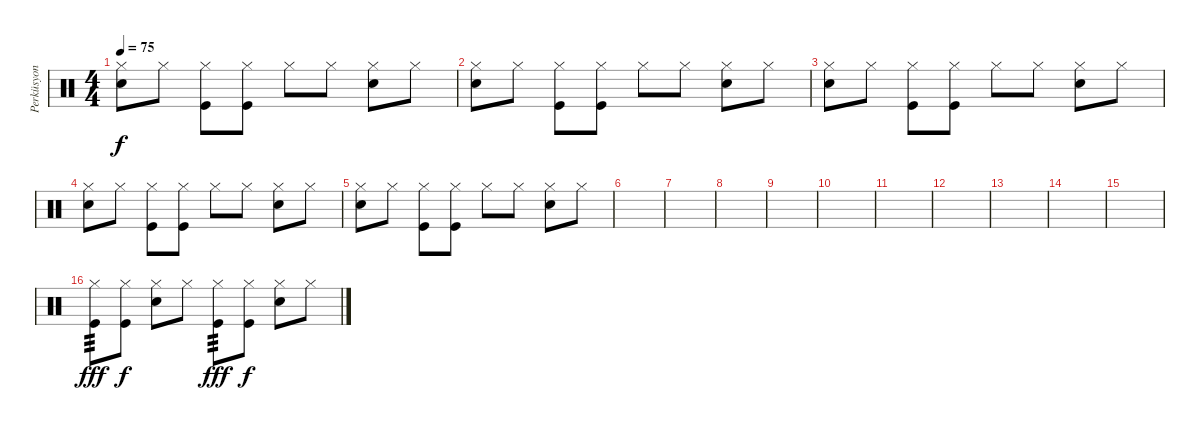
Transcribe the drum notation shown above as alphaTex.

\track ("Perküsyon" "Perküsyon") {instrument percussion}
\staff {score}
\articulation defaults
\ts (4 4)
\tempo 75
\clef neutral
\ks c
("Snare (hit) 2" "Hi-Hat (closed)").8{dy f} "Hi-Hat (closed)".8 ("Kick (hit)" "Hi-Hat (closed)").8 ("Kick (hit)" "Hi-Hat (closed)").8 "Hi-Hat (closed)".8 "Hi-Hat (closed)".8 ("Snare (hit) 2" "Hi-Hat (closed)").8 "Hi-Hat (closed)".8 |
("Snare (hit) 2" "Hi-Hat (closed)").8 "Hi-Hat (closed)".8 ("Kick (hit)" "Hi-Hat (closed)").8 ("Kick (hit)" "Hi-Hat (closed)").8 "Hi-Hat (closed)".8 "Hi-Hat (closed)".8 ("Snare (hit) 2" "Hi-Hat (closed)").8 "Hi-Hat (closed)".8 |
("Snare (hit) 2" "Hi-Hat (closed)").8 "Hi-Hat (closed)".8 ("Kick (hit)" "Hi-Hat (closed)").8 ("Kick (hit)" "Hi-Hat (closed)").8 "Hi-Hat (closed)".8 "Hi-Hat (closed)".8 ("Snare (hit) 2" "Hi-Hat (closed)").8 "Hi-Hat (closed)".8 |
("Snare (hit) 2" "Hi-Hat (closed)").8 "Hi-Hat (closed)".8 ("Kick (hit)" "Hi-Hat (closed)").8 ("Kick (hit)" "Hi-Hat (closed)").8 "Hi-Hat (closed)".8 "Hi-Hat (closed)".8 ("Snare (hit) 2" "Hi-Hat (closed)").8 "Hi-Hat (closed)".8 |
("Snare (hit) 2" "Hi-Hat (closed)").8 "Hi-Hat (closed)".8 ("Kick (hit)" "Hi-Hat (closed)").8 ("Kick (hit)" "Hi-Hat (closed)").8 "Hi-Hat (closed)".8 "Hi-Hat (closed)".8 ("Snare (hit) 2" "Hi-Hat (closed)").8 "Hi-Hat (closed)".8 |
|
|
|
|
|
|
|
|
|
|
("Kick (hit)" "Hi-Hat (closed)").8{tp 3 dy fff} ("Kick (hit)" "Hi-Hat (closed)").8{dy f} ("Snare (hit) 2" "Hi-Hat (closed)").8 "Hi-Hat (closed)".8 ("Kick (hit)" "Hi-Hat (closed)").8{tp 3 dy fff} ("Kick (hit)" "Hi-Hat (closed)").8{dy f} ("Snare (hit) 2" "Hi-Hat (closed)").8 "Hi-Hat (closed)".8
